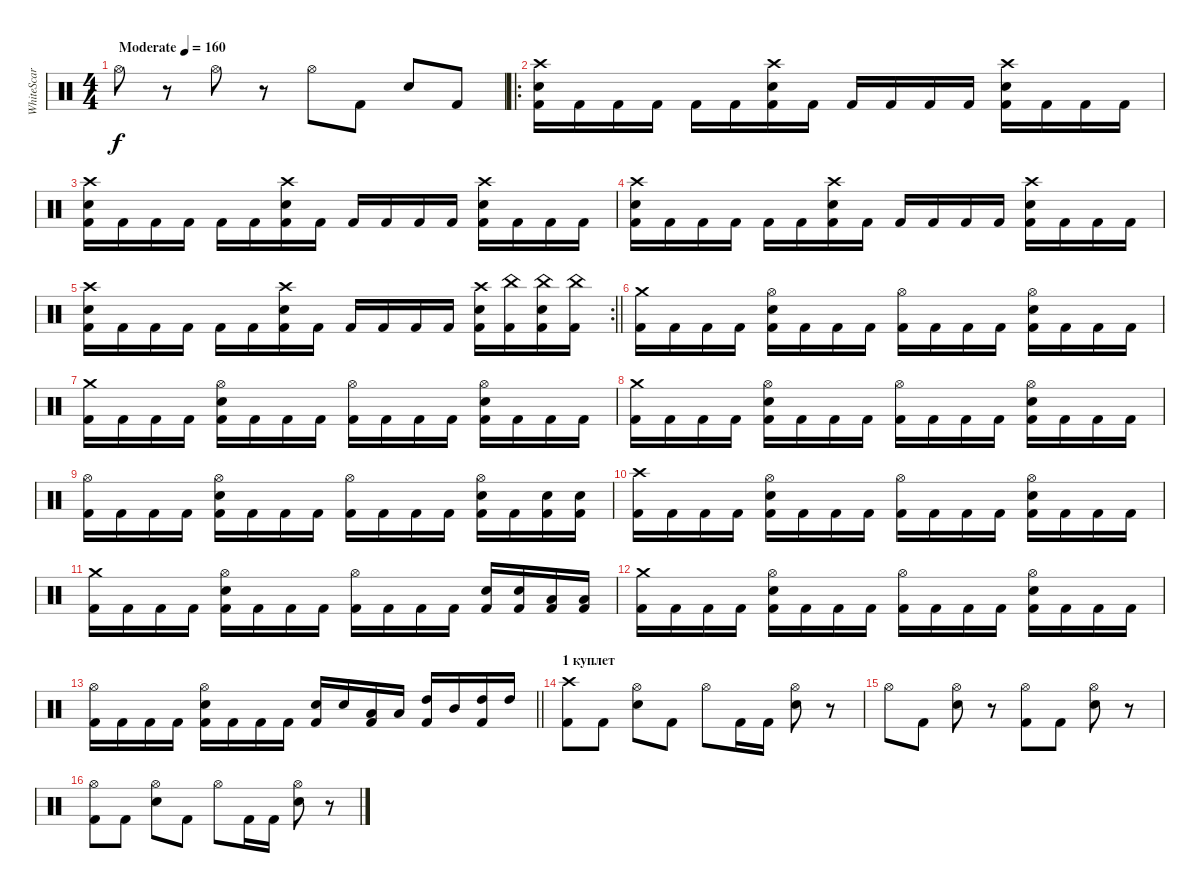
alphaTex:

\track ("WhiteScar" "WhiteScar") {instrument percussion}
\staff {score}
\articulation defaults
\ts (4 4)
\tempo (160 "Moderate")
\clef neutral
\ks c "Hi-Hat (open)".8{dy f}
r.8 "Hi-Hat (open)".8 r.8 "Hi-Hat (open)".8 "Kick (hit) 2".8 "Snare (hit) 2".8 "Kick (hit) 2".8 |
\ro
("Crash high (hit)" "Snare (hit) 2" "Kick (hit) 2").16 "Kick (hit) 2".16 "Kick (hit) 2".16 "Kick (hit) 2".16 "Kick (hit) 2".16 "Kick (hit) 2".16 ("Crash high (hit)" "Snare (hit) 2" "Kick (hit) 2").16 "Kick (hit) 2".16 "Kick (hit) 2".16 "Kick (hit) 2".16 "Kick (hit) 2".16 "Kick (hit) 2".16 ("Crash high (hit)" "Snare (hit) 2" "Kick (hit) 2").16 "Kick (hit) 2".16 "Kick (hit) 2".16 "Kick (hit) 2".16 |
("Crash high (hit)" "Snare (hit) 2" "Kick (hit) 2").16 "Kick (hit) 2".16 "Kick (hit) 2".16 "Kick (hit) 2".16 "Kick (hit) 2".16 "Kick (hit) 2".16 ("Crash high (hit)" "Snare (hit) 2" "Kick (hit) 2").16 "Kick (hit) 2".16 "Kick (hit) 2".16 "Kick (hit) 2".16 "Kick (hit) 2".16 "Kick (hit) 2".16 ("Crash high (hit)" "Snare (hit) 2" "Kick (hit) 2").16 "Kick (hit) 2".16 "Kick (hit) 2".16 "Kick (hit) 2".16 |
("Crash high (hit)" "Snare (hit) 2" "Kick (hit) 2").16 "Kick (hit) 2".16 "Kick (hit) 2".16 "Kick (hit) 2".16 "Kick (hit) 2".16 "Kick (hit) 2".16 ("Crash high (hit)" "Snare (hit) 2" "Kick (hit) 2").16 "Kick (hit) 2".16 "Kick (hit) 2".16 "Kick (hit) 2".16 "Kick (hit) 2".16 "Kick (hit) 2".16 ("Crash high (hit)" "Snare (hit) 2" "Kick (hit) 2").16 "Kick (hit) 2".16 "Kick (hit) 2".16 "Kick (hit) 2".16 |
\rc 2
\barLineRight lightlight
("Crash high (hit)" "Snare (hit) 2" "Kick (hit) 2").16 "Kick (hit) 2".16 "Kick (hit) 2".16 "Kick (hit) 2".16 "Kick (hit) 2".16 "Kick (hit) 2".16 ("Crash high (hit)" "Snare (hit) 2" "Kick (hit) 2").16 "Kick (hit) 2".16 "Kick (hit) 2".16 "Kick (hit) 2".16 "Kick (hit) 2".16 "Kick (hit) 2".16 ("Crash high (hit)" "Snare (hit) 2" "Kick (hit) 2").16 ("China (hit)" "Kick (hit) 2").16 ("China (hit)" "Snare (hit) 2" "Kick (hit) 2").16 ("China (hit)" "Kick (hit) 2").16 |
\section ("" "")
("Crash medium (hit)" "Kick (hit) 2").16 "Kick (hit) 2".16 "Kick (hit) 2".16 "Kick (hit) 2".16 ("Hi-Hat (open)" "Snare (hit) 2" "Kick (hit) 2").16 "Kick (hit) 2".16 "Kick (hit) 2".16 "Kick (hit) 2".16 ("Hi-Hat (open)" "Kick (hit) 2").16 "Kick (hit) 2".16 "Kick (hit) 2".16 "Kick (hit) 2".16 ("Hi-Hat (open)" "Snare (hit) 2" "Kick (hit) 2").16 "Kick (hit) 2".16 "Kick (hit) 2".16 "Kick (hit) 2".16 |
("Crash medium (hit)" "Kick (hit) 2").16 "Kick (hit) 2".16 "Kick (hit) 2".16 "Kick (hit) 2".16 ("Hi-Hat (open)" "Snare (hit) 2" "Kick (hit) 2").16 "Kick (hit) 2".16 "Kick (hit) 2".16 "Kick (hit) 2".16 ("Hi-Hat (open)" "Kick (hit) 2").16 "Kick (hit) 2".16 "Kick (hit) 2".16 "Kick (hit) 2".16 ("Hi-Hat (open)" "Snare (hit) 2" "Kick (hit) 2").16 "Kick (hit) 2".16 "Kick (hit) 2".16 "Kick (hit) 2".16 |
("Crash medium (hit)" "Kick (hit) 2").16 "Kick (hit) 2".16 "Kick (hit) 2".16 "Kick (hit) 2".16 ("Hi-Hat (open)" "Snare (hit) 2" "Kick (hit) 2").16 "Kick (hit) 2".16 "Kick (hit) 2".16 "Kick (hit) 2".16 ("Hi-Hat (open)" "Kick (hit) 2").16 "Kick (hit) 2".16 "Kick (hit) 2".16 "Kick (hit) 2".16 ("Hi-Hat (open)" "Snare (hit) 2" "Kick (hit) 2").16 "Kick (hit) 2".16 "Kick (hit) 2".16 "Kick (hit) 2".16 |
("Hi-Hat (open)" "Kick (hit) 2").16 "Kick (hit) 2".16 "Kick (hit) 2".16 "Kick (hit) 2".16 ("Hi-Hat (open)" "Snare (hit) 2" "Kick (hit) 2").16 "Kick (hit) 2".16 "Kick (hit) 2".16 "Kick (hit) 2".16 ("Hi-Hat (open)" "Kick (hit) 2").16 "Kick (hit) 2".16 "Kick (hit) 2".16 "Kick (hit) 2".16 ("Hi-Hat (open)" "Snare (hit) 2" "Kick (hit) 2").16 "Kick (hit) 2".16 ("Snare (hit) 2" "Kick (hit) 2").16 ("Snare (hit) 2" "Kick (hit) 2").16 |
("Crash high (hit)" "Kick (hit) 2").16 "Kick (hit) 2".16 "Kick (hit) 2".16 "Kick (hit) 2".16 ("Hi-Hat (open)" "Snare (hit) 2" "Kick (hit) 2").16 "Kick (hit) 2".16 "Kick (hit) 2".16 "Kick (hit) 2".16 ("Hi-Hat (open)" "Kick (hit) 2").16 "Kick (hit) 2".16 "Kick (hit) 2".16 "Kick (hit) 2".16 ("Hi-Hat (open)" "Snare (hit) 2" "Kick (hit) 2").16 "Kick (hit) 2".16 "Kick (hit) 2".16 "Kick (hit) 2".16 |
("Crash medium (hit)" "Kick (hit) 2").16 "Kick (hit) 2".16 "Kick (hit) 2".16 "Kick (hit) 2".16 ("Hi-Hat (open)" "Snare (hit) 2" "Kick (hit) 2").16 "Kick (hit) 2".16 "Kick (hit) 2".16 "Kick (hit) 2".16 ("Hi-Hat (open)" "Kick (hit) 2").16 "Kick (hit) 2".16 "Kick (hit) 2".16 "Kick (hit) 2".16 ("Snare (hit) 2" "Kick (hit) 2").16 ("Snare (hit) 2" "Kick (hit) 2").16 ("Low Tom (hit)" "Kick (hit) 2").16 ("Low Tom (hit)" "Kick (hit) 2").16 |
("Crash medium (hit)" "Kick (hit) 2").16 "Kick (hit) 2".16 "Kick (hit) 2".16 "Kick (hit) 2".16 ("Hi-Hat (open)" "Snare (hit) 2" "Kick (hit) 2").16 "Kick (hit) 2".16 "Kick (hit) 2".16 "Kick (hit) 2".16 ("Hi-Hat (open)" "Kick (hit) 2").16 "Kick (hit) 2".16 "Kick (hit) 2".16 "Kick (hit) 2".16 ("Hi-Hat (open)" "Snare (hit) 2" "Kick (hit) 2").16 "Kick (hit) 2".16 "Kick (hit) 2".16 "Kick (hit) 2".16 |
\barLineRight lightlight
("Hi-Hat (open)" "Kick (hit) 2").16 "Kick (hit) 2".16 "Kick (hit) 2".16 "Kick (hit) 2".16 ("Hi-Hat (open)" "Snare (hit) 2" "Kick (hit) 2").16 "Kick (hit) 2".16 "Kick (hit) 2".16 "Kick (hit) 2".16 ("Snare (hit) 2" "Kick (hit) 2").16 "Snare (hit) 2".16 ("Low Tom (hit)" "Kick (hit) 2").16 "Low Tom (hit)".16 ("High Tom (hit)" "Kick (hit) 2").16 "Mid Tom (hit)".16 ("High Tom (hit)" "Kick (hit) 2").16 "High Tom (hit)".16 |
\section ("" "1 куплет")
("Crash high (hit)" "Kick (hit) 2").8 "Kick (hit) 2".8 ("Hi-Hat (open)" "Snare (hit) 2").8 "Kick (hit) 2".8 "Hi-Hat (open)".8 "Kick (hit) 2".16 "Kick (hit) 2".16 ("Hi-Hat (open)" "Snare (hit) 2").8 r.8 |
"Hi-Hat (open)".8 "Kick (hit) 2".8 ("Hi-Hat (open)" "Snare (hit) 2").8 r.8 ("Hi-Hat (open)" "Kick (hit) 2").8 "Kick (hit) 2".8 ("Hi-Hat (open)" "Snare (hit) 2").8 r.8 |
("Hi-Hat (open)" "Kick (hit) 2").8 "Kick (hit) 2".8 ("Hi-Hat (open)" "Snare (hit) 2").8 "Kick (hit) 2".8 "Hi-Hat (open)".8 "Kick (hit) 2".16 "Kick (hit) 2".16 ("Hi-Hat (open)" "Snare (hit) 2").8 r.8
